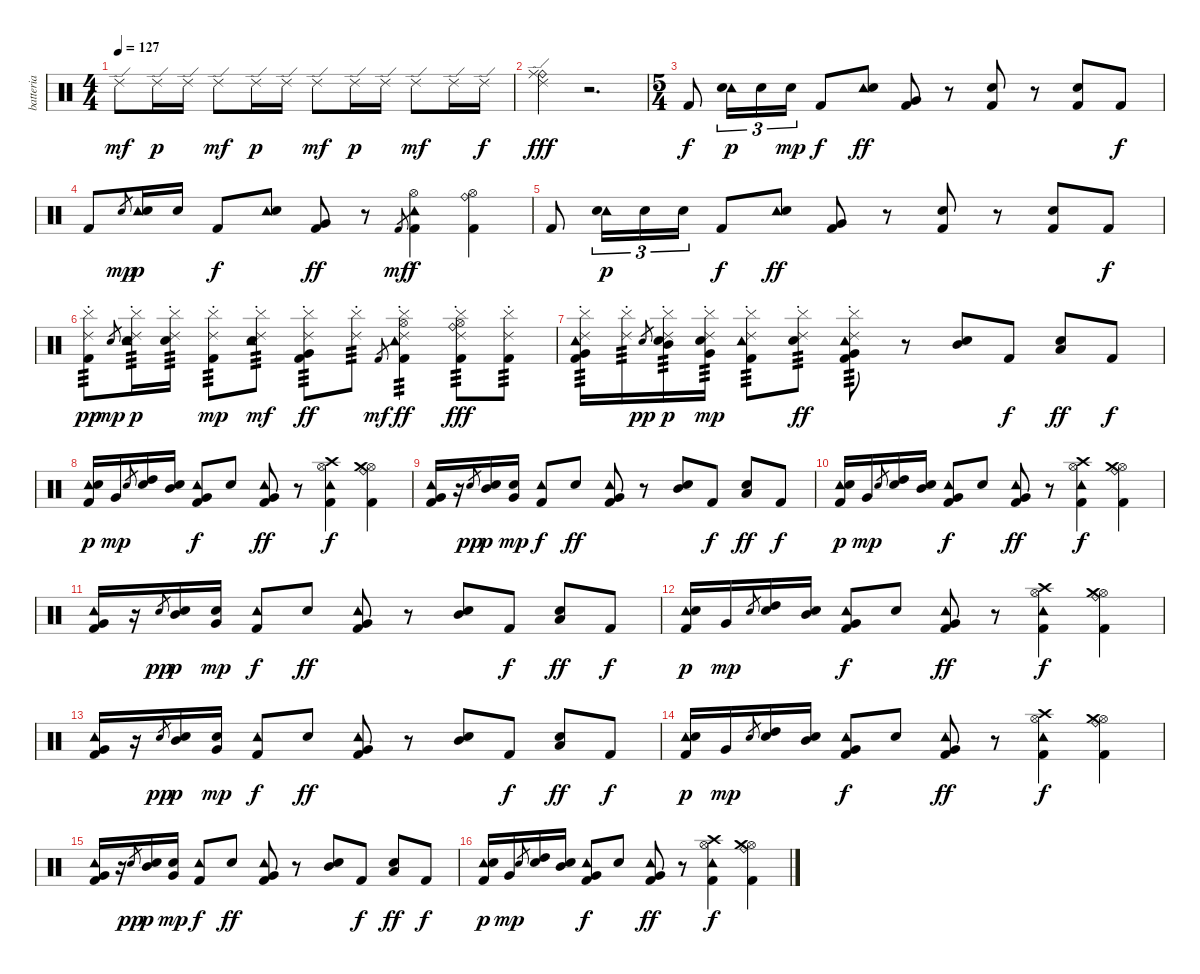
\track ("batteria" "batteria") {instrument percussion}
\staff {score}
\articulation defaults
\ts (4 4)
\tempo 127
\clef neutral
\ks c "Ride (edge) 2".8{dy mf} "Ride (edge) 2".16{dy p} "Ride (edge) 2".16 "Ride (edge) 2".8{dy mf} "Ride (edge) 2".16{dy p} "Ride (edge) 2".16 "Ride (edge) 2".8{dy mf} "Ride (edge) 2".16{dy p} "Ride (edge) 2".16 "Ride (edge) 2".8{dy mf} "Ride (edge) 2".16 "Ride (edge) 2".16{dy f}
|
("Ride (bell)" "Ride (middle)" "Ride (edge) 2").4{dy fff} r.2{d} |
\ts (5 4)
"Kick (hit) 2".8{dy f} ("Tambourine (hit)" "Electric Snare (hit)").16{tu (3 2) dy p} "Electric Snare (hit)".16{tu (3 2)} "Electric Snare (hit)".16{tu (3 2) dy mp} "Kick (hit) 2".8{dy f} ("Tambourine (hit)" "Electric Snare (hit)").8{dy ff} ("Very Low Tom (hit)" "Kick (hit) 2").8 r.8 ("Electric Snare (hit)" "Kick (hit) 2").8 r.8 ("Electric Snare (hit)" "Kick (hit) 2").8 "Kick (hit) 2".8{dy f} |
"Kick (hit) 2".8 "Electric Snare (hit)".8{gr dy mp} ("Tambourine (hit)" "Electric Snare (hit)").16{dy p} "Electric Snare (hit)".16 "Kick (hit) 2".8{dy f} ("Tambourine (hit)" "Electric Snare (hit)").8 ("Very Low Tom (hit)" "Kick (hit) 2").8{dy ff} r.8 "Kick (hit) 2".8{gr dy mf} ("Hi-Hat (open)" "Tambourine (hit)" "Kick (hit) 2").4{dy f} ("Ride (bell)" "Hi-Hat (open)" "Kick (hit) 2").4 |
"Kick (hit) 2".8 ("Tambourine (hit)" "Electric Snare (hit)").16{tu (3 2) dy p} "Electric Snare (hit)".16{tu (3 2)} "Electric Snare (hit)".16{tu (3 2)} "Kick (hit) 2".8{dy f} ("Tambourine (hit)" "Electric Snare (hit)").8{dy ff} ("Very Low Tom (hit)" "Kick (hit) 2").8 r.8 ("Electric Snare (hit)" "Kick (hit) 2").8 r.8 ("Electric Snare (hit)" "Kick (hit) 2").8 "Kick (hit) 2".8{dy f} |
("Ride (choke) 2" "Cymbal (hit)" "Kick (hit) 2").8{tp 3 dy pp} "Electric Snare (hit)".8{gr dy mp} ("Ride (choke) 2" "Cymbal (hit)" "Tambourine (hit)" "Electric Snare (hit)").16{tp 3 dy p} ("Ride (choke) 2" "Cymbal (hit)" "Electric Snare (hit)").16{tp 3} ("Ride (choke) 2" "Cymbal (hit)" "Kick (hit) 2").8{tp 3 dy mp} ("Ride (choke) 2" "Cymbal (hit)" "Tambourine (hit)" "Electric Snare (hit)").8{tp 3 dy mf} ("Ride (choke) 2" "Cymbal (hit)" "Very Low Tom (hit)" "Kick (hit) 2").8{tp 3 dy ff} ("Ride (choke) 2" "Cymbal (hit)").8{tp 3} "Kick (hit) 2".8{gr dy mf} ("Hi-Hat (open)" "Tambourine (hit)" "Ride (choke) 2" "Cymbal (hit)" "Kick (hit) 2").4{tp 3 dy ff} ("Ride (bell)" "Hi-Hat (open)" "Ride (choke) 2" "Cymbal (hit)" "Kick (hit) 2").8{tp 3 dy fff} ("Ride (choke) 2" "Cymbal (hit)" "Kick (hit) 2").8{tp 3} |
("Ride (choke) 2" "Cymbal (hit)" "Tambourine (hit)" "Very Low Tom (hit)" "Kick (hit) 2").16{tp 3} ("Ride (choke) 2" "Cymbal (hit)").16{tp 3} "Electric Snare (hit)".8{gr dy pp} ("Ride (choke) 2" "Cymbal (hit)" "Electric Snare (hit)" "Mid Tom (hit)").16{tp 3 dy p} ("Ride (choke) 2" "Cymbal (hit)" "Electric Snare (hit)" "Very Low Tom (hit)").16{tp 3 dy mp} ("Ride (choke) 2" "Cymbal (hit)" "Tambourine (hit)" "Kick (hit) 2").8{tp 3} ("Ride (choke) 2" "Cymbal (hit)" "Electric Snare (hit)").8{tp 3 dy ff} ("Ride (choke) 2" "Cymbal (hit)" "Tambourine (hit)" "Very Low Tom (hit)" "Kick (hit) 2").8{tp 3} r.8 ("Electric Snare (hit)" "Mid Tom (hit)").8 "Kick (hit) 2".8{dy f} ("Electric Snare (hit)" "Low Tom (hit)").8{dy ff} "Kick (hit) 2".8{dy f} |
("Tambourine (hit)" "Electric Snare (hit)" "Kick (hit) 2").16{dy p} "Very Low Tom (hit)".16{dy mp} "Electric Snare (hit)".8{gr} ("High Tom (hit)" "Electric Snare (hit)").16 ("Electric Snare (hit)" "Mid Tom (hit)").16 ("Tambourine (hit)" "Very Low Tom (hit)" "Kick (hit) 2").8{dy f} "Electric Snare (hit)".8 ("Tambourine (hit)" "Very Low Tom (hit)" "Kick (hit) 2").8{dy ff} r.8 ("Hi-Hat (open)" "Tambourine (hit)" "Crash high (hit)" "Kick (hit) 2").4{dy f} ("Ride (bell)" "Hi-Hat (open)" "Crash medium (hit)" "Kick (hit) 2").4 |
("Tambourine (hit)" "Very Low Tom (hit)" "Kick (hit) 2").16 r.16 "Electric Snare (hit)".8{gr dy pp} ("Electric Snare (hit)" "Mid Tom (hit)").16{dy p} ("Electric Snare (hit)" "Very Low Tom (hit)").16{dy mp} ("Tambourine (hit)" "Kick (hit) 2").8{dy f} "Electric Snare (hit)".8{dy ff} ("Tambourine (hit)" "Very Low Tom (hit)" "Kick (hit) 2").8 r.8 ("Electric Snare (hit)" "Mid Tom (hit)").8 "Kick (hit) 2".8{dy f} ("Electric Snare (hit)" "Low Tom (hit)").8{dy ff} "Kick (hit) 2".8{dy f} |
("Tambourine (hit)" "Electric Snare (hit)" "Kick (hit) 2").16{dy p} "Very Low Tom (hit)".16{dy mp} "Electric Snare (hit)".8{gr} ("High Tom (hit)" "Electric Snare (hit)").16 ("Electric Snare (hit)" "Mid Tom (hit)").16 ("Tambourine (hit)" "Very Low Tom (hit)" "Kick (hit) 2").8{dy f} "Electric Snare (hit)".8 ("Tambourine (hit)" "Very Low Tom (hit)" "Kick (hit) 2").8{dy ff} r.8 ("Hi-Hat (open)" "Tambourine (hit)" "Crash high (hit)" "Kick (hit) 2").4{dy f} ("Ride (bell)" "Hi-Hat (open)" "Crash medium (hit)" "Kick (hit) 2").4 |
("Tambourine (hit)" "Very Low Tom (hit)" "Kick (hit) 2").16 r.16 "Electric Snare (hit)".8{gr dy pp} ("Electric Snare (hit)" "Mid Tom (hit)").16{dy p} ("Electric Snare (hit)" "Very Low Tom (hit)").16{dy mp} ("Tambourine (hit)" "Kick (hit) 2").8{dy f} "Electric Snare (hit)".8{dy ff} ("Tambourine (hit)" "Very Low Tom (hit)" "Kick (hit) 2").8 r.8 ("Electric Snare (hit)" "Mid Tom (hit)").8 "Kick (hit) 2".8{dy f} ("Electric Snare (hit)" "Low Tom (hit)").8{dy ff} "Kick (hit) 2".8{dy f} |
("Tambourine (hit)" "Electric Snare (hit)" "Kick (hit) 2").16{dy p} "Very Low Tom (hit)".16{dy mp} "Electric Snare (hit)".8{gr} ("High Tom (hit)" "Electric Snare (hit)").16 ("Electric Snare (hit)" "Mid Tom (hit)").16 ("Tambourine (hit)" "Very Low Tom (hit)" "Kick (hit) 2").8{dy f} "Electric Snare (hit)".8 ("Tambourine (hit)" "Very Low Tom (hit)" "Kick (hit) 2").8{dy ff} r.8 ("Hi-Hat (open)" "Tambourine (hit)" "Crash high (hit)" "Kick (hit) 2").4{dy f} ("Ride (bell)" "Hi-Hat (open)" "Crash medium (hit)" "Kick (hit) 2").4 |
("Tambourine (hit)" "Very Low Tom (hit)" "Kick (hit) 2").16 r.16 "Electric Snare (hit)".8{gr dy pp} ("Electric Snare (hit)" "Mid Tom (hit)").16{dy p} ("Electric Snare (hit)" "Very Low Tom (hit)").16{dy mp} ("Tambourine (hit)" "Kick (hit) 2").8{dy f} "Electric Snare (hit)".8{dy ff} ("Tambourine (hit)" "Very Low Tom (hit)" "Kick (hit) 2").8 r.8 ("Electric Snare (hit)" "Mid Tom (hit)").8 "Kick (hit) 2".8{dy f} ("Electric Snare (hit)" "Low Tom (hit)").8{dy ff} "Kick (hit) 2".8{dy f} |
("Tambourine (hit)" "Electric Snare (hit)" "Kick (hit) 2").16{dy p} "Very Low Tom (hit)".16{dy mp} "Electric Snare (hit)".8{gr} ("High Tom (hit)" "Electric Snare (hit)").16 ("Electric Snare (hit)" "Mid Tom (hit)").16 ("Tambourine (hit)" "Very Low Tom (hit)" "Kick (hit) 2").8{dy f} "Electric Snare (hit)".8 ("Tambourine (hit)" "Very Low Tom (hit)" "Kick (hit) 2").8{dy ff} r.8 ("Hi-Hat (open)" "Tambourine (hit)" "Crash high (hit)" "Kick (hit) 2").4{dy f} ("Ride (bell)" "Hi-Hat (open)" "Crash medium (hit)" "Kick (hit) 2").4 |
("Tambourine (hit)" "Very Low Tom (hit)" "Kick (hit) 2").16 r.16 "Electric Snare (hit)".8{gr dy pp} ("Electric Snare (hit)" "Mid Tom (hit)").16{dy p} ("Electric Snare (hit)" "Very Low Tom (hit)").16{dy mp} ("Tambourine (hit)" "Kick (hit) 2").8{dy f} "Electric Snare (hit)".8{dy ff} ("Tambourine (hit)" "Very Low Tom (hit)" "Kick (hit) 2").8 r.8 ("Electric Snare (hit)" "Mid Tom (hit)").8 "Kick (hit) 2".8{dy f} ("Electric Snare (hit)" "Low Tom (hit)").8{dy ff} "Kick (hit) 2".8{dy f} |
("Tambourine (hit)" "Electric Snare (hit)" "Kick (hit) 2").16{dy p} "Very Low Tom (hit)".16{dy mp} "Electric Snare (hit)".8{gr} ("High Tom (hit)" "Electric Snare (hit)").16 ("Electric Snare (hit)" "Mid Tom (hit)").16 ("Tambourine (hit)" "Very Low Tom (hit)" "Kick (hit) 2").8{dy f} "Electric Snare (hit)".8 ("Tambourine (hit)" "Very Low Tom (hit)" "Kick (hit) 2").8{dy ff} r.8 ("Hi-Hat (open)" "Tambourine (hit)" "Crash high (hit)" "Kick (hit) 2").4{dy f} ("Ride (bell)" "Hi-Hat (open)" "Crash medium (hit)" "Kick (hit) 2").4
